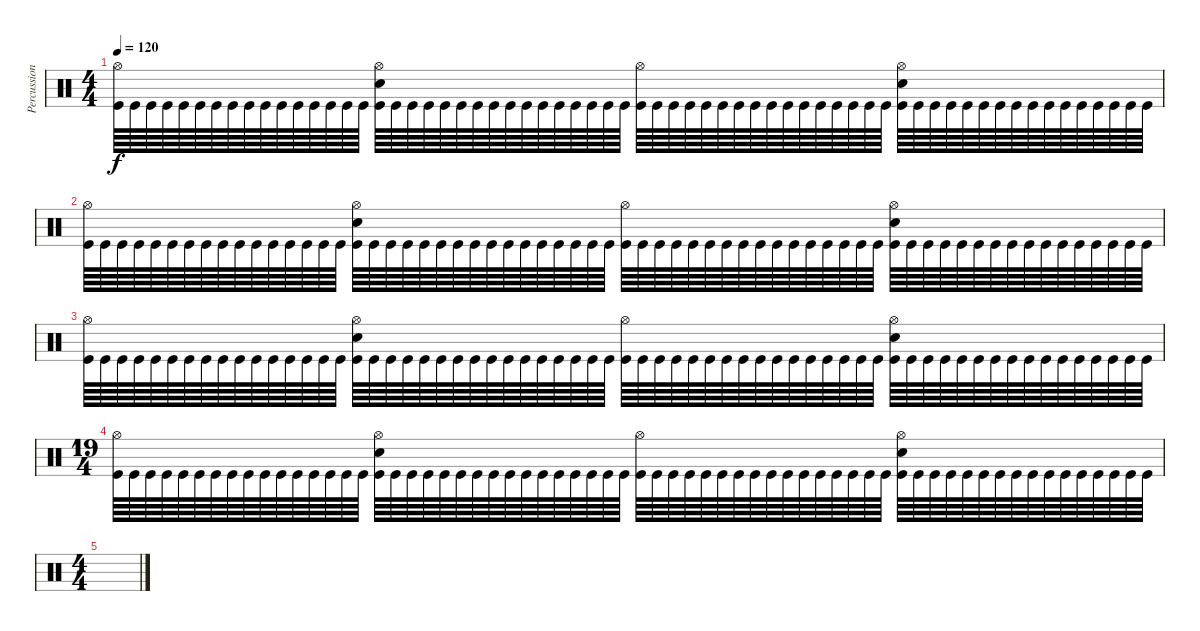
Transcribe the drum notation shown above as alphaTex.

\track ("Percussion" "Percussion") {instrument percussion}
\staff {score}
\articulation defaults
\ts (4 4)
\tempo 120
\clef neutral
\ks c
("Hi-Hat (open)" "Kick (hit)").64{dy f} "Kick (hit)".64 "Kick (hit)".64 "Kick (hit)".64 "Kick (hit)".64 "Kick (hit)".64 "Kick (hit)".64 "Kick (hit)".64 "Kick (hit)".64 "Kick (hit)".64 "Kick (hit)".64 "Kick (hit)".64 "Kick (hit)".64 "Kick (hit)".64 "Kick (hit)".64 "Kick (hit)".64 ("Hi-Hat (open)" "Snare (hit) 2" "Kick (hit)").64 "Kick (hit)".64 "Kick (hit)".64 "Kick (hit)".64 "Kick (hit)".64 "Kick (hit)".64 "Kick (hit)".64 "Kick (hit)".64 "Kick (hit)".64 "Kick (hit)".64 "Kick (hit)".64 "Kick (hit)".64 "Kick (hit)".64 "Kick (hit)".64 "Kick (hit)".64 "Kick (hit)".64 ("Hi-Hat (open)" "Kick (hit)").64 "Kick (hit)".64 "Kick (hit)".64 "Kick (hit)".64 "Kick (hit)".64 "Kick (hit)".64 "Kick (hit)".64 "Kick (hit)".64 "Kick (hit)".64 "Kick (hit)".64 "Kick (hit)".64 "Kick (hit)".64 "Kick (hit)".64 "Kick (hit)".64 "Kick (hit)".64 "Kick (hit)".64 ("Hi-Hat (open)" "Snare (hit) 2" "Kick (hit)").64 "Kick (hit)".64 "Kick (hit)".64 "Kick (hit)".64 "Kick (hit)".64 "Kick (hit)".64 "Kick (hit)".64 "Kick (hit)".64 "Kick (hit)".64 "Kick (hit)".64 "Kick (hit)".64 "Kick (hit)".64 "Kick (hit)".64 "Kick (hit)".64 "Kick (hit)".64 "Kick (hit)".64 |
("Hi-Hat (open)" "Kick (hit)").64 "Kick (hit)".64 "Kick (hit)".64 "Kick (hit)".64 "Kick (hit)".64 "Kick (hit)".64 "Kick (hit)".64 "Kick (hit)".64 "Kick (hit)".64 "Kick (hit)".64 "Kick (hit)".64 "Kick (hit)".64 "Kick (hit)".64 "Kick (hit)".64 "Kick (hit)".64 "Kick (hit)".64 ("Hi-Hat (open)" "Snare (hit) 2" "Kick (hit)").64 "Kick (hit)".64 "Kick (hit)".64 "Kick (hit)".64 "Kick (hit)".64 "Kick (hit)".64 "Kick (hit)".64 "Kick (hit)".64 "Kick (hit)".64 "Kick (hit)".64 "Kick (hit)".64 "Kick (hit)".64 "Kick (hit)".64 "Kick (hit)".64 "Kick (hit)".64 "Kick (hit)".64 ("Hi-Hat (open)" "Kick (hit)").64 "Kick (hit)".64 "Kick (hit)".64 "Kick (hit)".64 "Kick (hit)".64 "Kick (hit)".64 "Kick (hit)".64 "Kick (hit)".64 "Kick (hit)".64 "Kick (hit)".64 "Kick (hit)".64 "Kick (hit)".64 "Kick (hit)".64 "Kick (hit)".64 "Kick (hit)".64 "Kick (hit)".64 ("Hi-Hat (open)" "Snare (hit) 2" "Kick (hit)").64 "Kick (hit)".64 "Kick (hit)".64 "Kick (hit)".64 "Kick (hit)".64 "Kick (hit)".64 "Kick (hit)".64 "Kick (hit)".64 "Kick (hit)".64 "Kick (hit)".64 "Kick (hit)".64 "Kick (hit)".64 "Kick (hit)".64 "Kick (hit)".64 "Kick (hit)".64 "Kick (hit)".64 |
("Hi-Hat (open)" "Kick (hit)").64 "Kick (hit)".64 "Kick (hit)".64 "Kick (hit)".64 "Kick (hit)".64 "Kick (hit)".64 "Kick (hit)".64 "Kick (hit)".64 "Kick (hit)".64 "Kick (hit)".64 "Kick (hit)".64 "Kick (hit)".64 "Kick (hit)".64 "Kick (hit)".64 "Kick (hit)".64 "Kick (hit)".64 ("Hi-Hat (open)" "Snare (hit) 2" "Kick (hit)").64 "Kick (hit)".64 "Kick (hit)".64 "Kick (hit)".64 "Kick (hit)".64 "Kick (hit)".64 "Kick (hit)".64 "Kick (hit)".64 "Kick (hit)".64 "Kick (hit)".64 "Kick (hit)".64 "Kick (hit)".64 "Kick (hit)".64 "Kick (hit)".64 "Kick (hit)".64 "Kick (hit)".64 ("Hi-Hat (open)" "Kick (hit)").64 "Kick (hit)".64 "Kick (hit)".64 "Kick (hit)".64 "Kick (hit)".64 "Kick (hit)".64 "Kick (hit)".64 "Kick (hit)".64 "Kick (hit)".64 "Kick (hit)".64 "Kick (hit)".64 "Kick (hit)".64 "Kick (hit)".64 "Kick (hit)".64 "Kick (hit)".64 "Kick (hit)".64 ("Hi-Hat (open)" "Snare (hit) 2" "Kick (hit)").64 "Kick (hit)".64 "Kick (hit)".64 "Kick (hit)".64 "Kick (hit)".64 "Kick (hit)".64 "Kick (hit)".64 "Kick (hit)".64 "Kick (hit)".64 "Kick (hit)".64 "Kick (hit)".64 "Kick (hit)".64 "Kick (hit)".64 "Kick (hit)".64 "Kick (hit)".64 "Kick (hit)".64 |
\ts (19 4)
("Hi-Hat (open)" "Kick (hit)").64 "Kick (hit)".64 "Kick (hit)".64 "Kick (hit)".64 "Kick (hit)".64 "Kick (hit)".64 "Kick (hit)".64 "Kick (hit)".64 "Kick (hit)".64 "Kick (hit)".64 "Kick (hit)".64 "Kick (hit)".64 "Kick (hit)".64 "Kick (hit)".64 "Kick (hit)".64 "Kick (hit)".64 ("Hi-Hat (open)" "Snare (hit) 2" "Kick (hit)").64 "Kick (hit)".64 "Kick (hit)".64 "Kick (hit)".64 "Kick (hit)".64 "Kick (hit)".64 "Kick (hit)".64 "Kick (hit)".64 "Kick (hit)".64 "Kick (hit)".64 "Kick (hit)".64 "Kick (hit)".64 "Kick (hit)".64 "Kick (hit)".64 "Kick (hit)".64 "Kick (hit)".64 ("Hi-Hat (open)" "Kick (hit)").64 "Kick (hit)".64 "Kick (hit)".64 "Kick (hit)".64 "Kick (hit)".64 "Kick (hit)".64 "Kick (hit)".64 "Kick (hit)".64 "Kick (hit)".64 "Kick (hit)".64 "Kick (hit)".64 "Kick (hit)".64 "Kick (hit)".64 "Kick (hit)".64 "Kick (hit)".64 "Kick (hit)".64 ("Hi-Hat (open)" "Snare (hit) 2" "Kick (hit)").64 "Kick (hit)".64 "Kick (hit)".64 "Kick (hit)".64 "Kick (hit)".64 "Kick (hit)".64 "Kick (hit)".64 "Kick (hit)".64 "Kick (hit)".64 "Kick (hit)".64 "Kick (hit)".64 "Kick (hit)".64 "Kick (hit)".64 "Kick (hit)".64 "Kick (hit)".64 "Kick (hit)".64 |
\ts (4 4)
